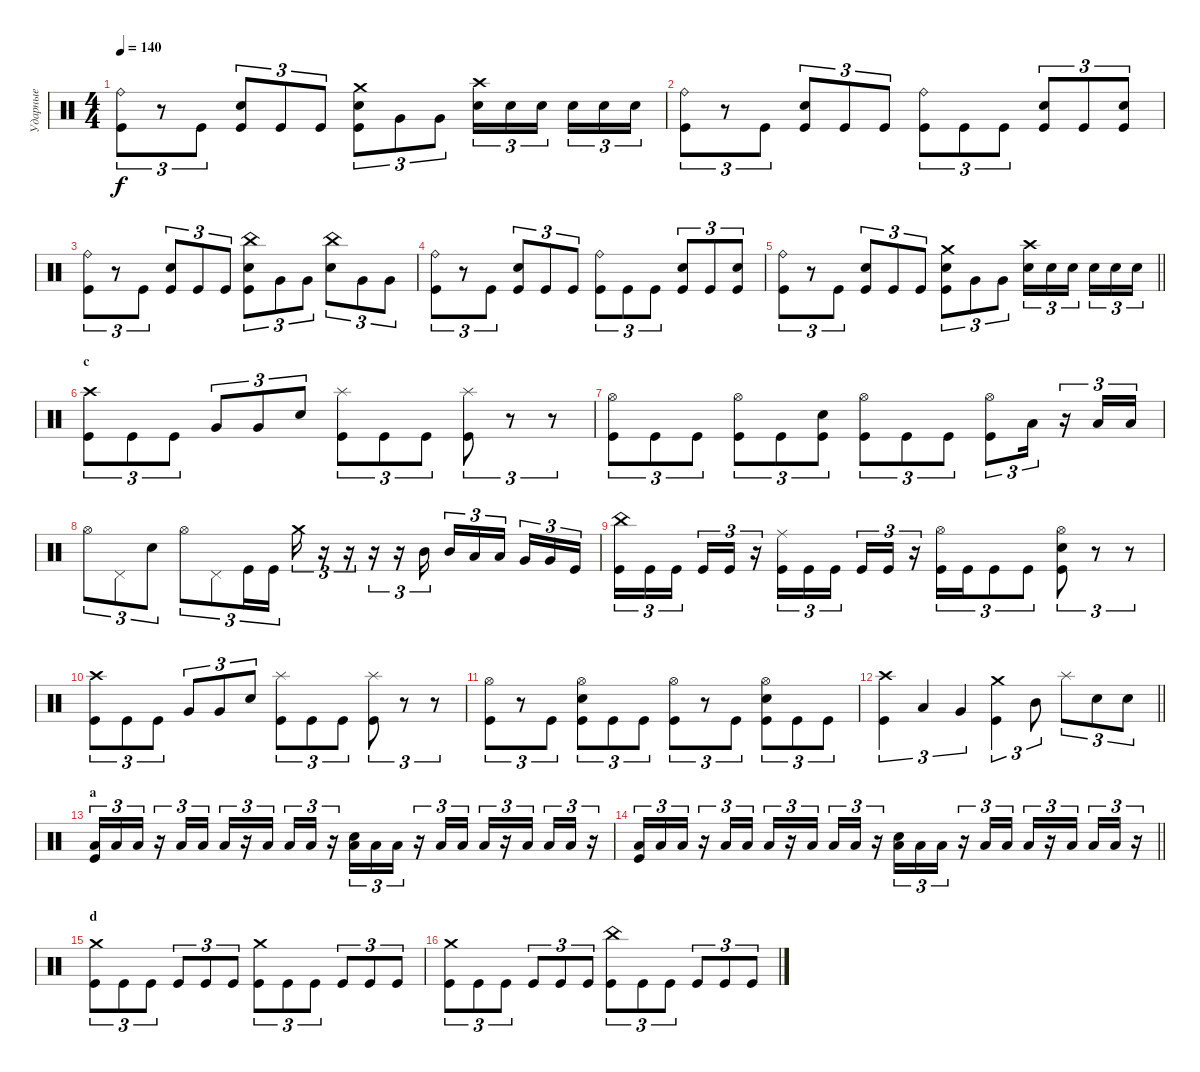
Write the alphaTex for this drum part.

\track ("Ударные" "Ударные") {instrument percussion}
\staff {score}
\articulation defaults
\ts (4 4)
\tempo 140
\clef neutral
\ks c
("Ride (bell)" "Kick (hit)").8{tu (3 2) dy f} r.8{tu (3 2)} "Kick (hit)".8{tu (3 2)} ("Electric Snare (hit)" "Kick (hit)").8{tu (3 2)} "Kick (hit)".8{tu (3 2)} "Kick (hit)".8{tu (3 2)} ("Electric Snare (hit)" "Kick (hit)" "Crash medium (hit)").8{tu (3 2)} "Very Low Tom (hit)".8{tu (3 2)} "Very Low Tom (hit)".8{tu (3 2)} ("Electric Snare (hit)" "Crash high (hit)").16{tu (3 2)} "Electric Snare (hit)".16{tu (3 2)} "Electric Snare (hit)".16{tu (3 2) beam splitsecondary} "Electric Snare (hit)".16{tu (3 2)} "Electric Snare (hit)".16{tu (3 2)} "Electric Snare (hit)".16{tu (3 2)} |
("Ride (bell)" "Kick (hit)").8{tu (3 2)} r.8{tu (3 2)} "Kick (hit)".8{tu (3 2)} ("Electric Snare (hit)" "Kick (hit)").8{tu (3 2)} "Kick (hit)".8{tu (3 2)} "Kick (hit)".8{tu (3 2)} ("Ride (bell)" "Kick (hit)").8{tu (3 2)} "Kick (hit)".8{tu (3 2)} "Kick (hit)".8{tu (3 2)} ("Electric Snare (hit)" "Kick (hit)").8{tu (3 2)} "Kick (hit)".8{tu (3 2)} ("Electric Snare (hit)" "Kick (hit)").8{tu (3 2)} |
("Ride (bell)" "Kick (hit)").8{tu (3 2)} r.8{tu (3 2)} "Kick (hit)".8{tu (3 2)} ("Electric Snare (hit)" "Kick (hit)").8{tu (3 2)} "Kick (hit)".8{tu (3 2)} "Kick (hit)".8{tu (3 2)} ("Electric Snare (hit)" "Kick (hit)" "China (hit)").8{tu (3 2)} "Very Low Tom (hit)".8{tu (3 2)} "Very Low Tom (hit)".8{tu (3 2)} ("Electric Snare (hit)" "China (hit)").8{tu (3 2)} "Very Low Tom (hit)".8{tu (3 2)} "Very Low Tom (hit)".8{tu (3 2)} |
("Ride (bell)" "Kick (hit)").8{tu (3 2)} r.8{tu (3 2)} "Kick (hit)".8{tu (3 2)} ("Electric Snare (hit)" "Kick (hit)").8{tu (3 2)} "Kick (hit)".8{tu (3 2)} "Kick (hit)".8{tu (3 2)} ("Ride (bell)" "Kick (hit)").8{tu (3 2)} "Kick (hit)".8{tu (3 2)} "Kick (hit)".8{tu (3 2)} ("Electric Snare (hit)" "Kick (hit)").8{tu (3 2)} "Kick (hit)".8{tu (3 2)} ("Electric Snare (hit)" "Kick (hit)").8{tu (3 2)} |
\barLineRight lightlight
("Ride (bell)" "Kick (hit)").8{tu (3 2)} r.8{tu (3 2)} "Kick (hit)".8{tu (3 2)} ("Electric Snare (hit)" "Kick (hit)").8{tu (3 2)} "Kick (hit)".8{tu (3 2)} "Kick (hit)".8{tu (3 2)} ("Electric Snare (hit)" "Kick (hit)" "Crash medium (hit)").8{tu (3 2)} "Very Low Tom (hit)".8{tu (3 2)} "Very Low Tom (hit)".8{tu (3 2)} ("Electric Snare (hit)" "Crash high (hit)").16{tu (3 2)} "Electric Snare (hit)".16{tu (3 2)} "Electric Snare (hit)".16{tu (3 2) beam splitsecondary} "Electric Snare (hit)".16{tu (3 2)} "Electric Snare (hit)".16{tu (3 2)} "Electric Snare (hit)".16{tu (3 2)} |
\section ("" "c")
("Crash high (hit)" "Kick (hit)").8{tu (3 2)} "Kick (hit)".8{tu (3 2)} "Kick (hit)".8{tu (3 2)} "Very Low Tom (hit)".8{tu (3 2)} "Very Low Tom (hit)".8{tu (3 2)} "Electric Snare (hit)".8{tu (3 2)} ("Splash (hit)" "Kick (hit)").8{tu (3 2)} "Kick (hit)".8{tu (3 2)} "Kick (hit)".8{tu (3 2)} ("Splash (hit)" "Kick (hit)").8{tu (3 2)} r.8{tu (3 2)} r.8{tu (3 2)} |
("Hi-Hat (open)" "Kick (hit)").8{tu (3 2)} "Kick (hit)".8{tu (3 2)} "Kick (hit)".8{tu (3 2)} ("Hi-Hat (open)" "Kick (hit)").8{tu (3 2)} "Kick (hit)".8{tu (3 2)} ("Electric Snare (hit)" "Kick (hit)").8{tu (3 2)} ("Hi-Hat (open)" "Kick (hit)").8{tu (3 2)} "Kick (hit)".8{tu (3 2)} "Kick (hit)".8{tu (3 2)} ("Hi-Hat (open)" "Kick (hit)").8{tu (3 2)} "Low Floor Tom (hit)".16{tu (3 2)} r.16{tu (3 2)} "Low Floor Tom (hit)".16{tu (3 2)} "Low Floor Tom (hit)".16{tu (3 2)} |
"Hi-Hat (open)".8{tu (3 2)} "Pedal Hi-Hat (hit)".8{tu (3 2)} "Electric Snare (hit)".8{tu (3 2)} "Hi-Hat (open)".8{tu (3 2)} "Pedal Hi-Hat (hit)".8{tu (3 2)} "Kick (hit)".16{tu (3 2)} "Kick (hit)".16{tu (3 2)} "Crash medium (hit)".16{tu (3 2)} r.16{tu (3 2)} r.16{tu (3 2)} r.16{tu (3 2)} r.16{tu (3 2)} "Mid Tom (hit)".16{tu (3 2)} "Mid Tom (hit)".16{tu (3 2)} "Low Tom (hit)".16{tu (3 2)} "Low Tom (hit)".16{tu (3 2) beam splitsecondary} "Very Low Tom (hit)".16{tu (3 2)} "Very Low Tom (hit)".16{tu (3 2)} "Kick (hit)".16{tu (3 2)} |
("China (hit)" "Kick (hit)").16{tu (3 2)} "Kick (hit)".16{tu (3 2)} "Kick (hit)".16{tu (3 2) beam splitsecondary} "Kick (hit)".16{tu (3 2)} "Kick (hit)".16{tu (3 2)} r.16{tu (3 2)} ("Ride (middle)" "Kick (hit)").16{tu (3 2)} "Kick (hit)".16{tu (3 2)} "Kick (hit)".16{tu (3 2) beam splitsecondary} "Kick (hit)".16{tu (3 2)} "Kick (hit)".16{tu (3 2)} r.16{tu (3 2)} ("Hi-Hat (open)" "Kick (hit)").16{tu (3 2)} "Kick (hit)".16{tu (3 2)} "Kick (hit)".8{tu (3 2)} "Kick (hit)".8{tu (3 2)} ("Hi-Hat (open)" "Electric Snare (hit)" "Kick (hit)").8{tu (3 2)} r.8{tu (3 2)} r.8{tu (3 2)} |
("Crash high (hit)" "Kick (hit)").8{tu (3 2)} "Kick (hit)".8{tu (3 2)} "Kick (hit)".8{tu (3 2)} "Very Low Tom (hit)".8{tu (3 2)} "Very Low Tom (hit)".8{tu (3 2)} "Electric Snare (hit)".8{tu (3 2)} ("Splash (hit)" "Kick (hit)").8{tu (3 2)} "Kick (hit)".8{tu (3 2)} "Kick (hit)".8{tu (3 2)} ("Splash (hit)" "Kick (hit)").8{tu (3 2)} r.8{tu (3 2)} r.8{tu (3 2)} |
("Hi-Hat (open)" "Kick (hit)").8{tu (3 2)} r.8{tu (3 2)} "Kick (hit)".8{tu (3 2)} ("Hi-Hat (open)" "Electric Snare (hit)" "Kick (hit)").8{tu (3 2)} "Kick (hit)".8{tu (3 2)} "Kick (hit)".8{tu (3 2)} ("Hi-Hat (open)" "Kick (hit)").8{tu (3 2)} r.8{tu (3 2)} "Kick (hit)".8{tu (3 2)} ("Hi-Hat (open)" "Electric Snare (hit)" "Kick (hit)").8{tu (3 2)} "Kick (hit)".8{tu (3 2)} "Kick (hit)".8{tu (3 2)} |
\barLineRight lightlight
("Crash high (hit)" "Kick (hit)").4{tu (3 2)} "Low Tom (hit)".4{tu (3 2)} "Very Low Tom (hit)".4{tu (3 2)} ("Crash medium (hit)" "Kick (hit)").4{tu (3 2)} "Mid Tom (hit)".8{tu (3 2)} "Splash (hit)".8{tu (3 2)} "Electric Snare (hit)".8{tu (3 2)} "Electric Snare (hit)".8{tu (3 2)} |
\section ("" "a")
("Low Floor Tom (hit)" "Kick (hit)").16{tu (3 2)} "Low Floor Tom (hit)".16{tu (3 2)} "Low Floor Tom (hit)".16{tu (3 2)} r.16{tu (3 2)} "Low Floor Tom (hit)".16{tu (3 2)} "Low Floor Tom (hit)".16{tu (3 2)} "Low Floor Tom (hit)".16{tu (3 2)} r.16{tu (3 2)} "Low Floor Tom (hit)".16{tu (3 2) beam splitsecondary} "Low Floor Tom (hit)".16{tu (3 2)} "Low Floor Tom (hit)".16{tu (3 2)} r.16{tu (3 2)} ("Low Floor Tom (hit)" "Electric Snare (hit)").16{tu (3 2)} "Low Floor Tom (hit)".16{tu (3 2)} "Low Floor Tom (hit)".16{tu (3 2)} r.16{tu (3 2)} "Low Floor Tom (hit)".16{tu (3 2)} "Low Floor Tom (hit)".16{tu (3 2)} "Low Floor Tom (hit)".16{tu (3 2)} r.16{tu (3 2)} "Low Floor Tom (hit)".16{tu (3 2) beam splitsecondary} "Low Floor Tom (hit)".16{tu (3 2)} "Low Floor Tom (hit)".16{tu (3 2)} r.16{tu (3 2)} |
\barLineRight lightlight
("Low Floor Tom (hit)" "Kick (hit)").16{tu (3 2)} "Low Floor Tom (hit)".16{tu (3 2)} "Low Floor Tom (hit)".16{tu (3 2)} r.16{tu (3 2)} "Low Floor Tom (hit)".16{tu (3 2)} "Low Floor Tom (hit)".16{tu (3 2)} "Low Floor Tom (hit)".16{tu (3 2)} r.16{tu (3 2)} "Low Floor Tom (hit)".16{tu (3 2) beam splitsecondary} "Low Floor Tom (hit)".16{tu (3 2)} "Low Floor Tom (hit)".16{tu (3 2)} r.16{tu (3 2)} ("Low Floor Tom (hit)" "Electric Snare (hit)").16{tu (3 2)} "Low Floor Tom (hit)".16{tu (3 2)} "Low Floor Tom (hit)".16{tu (3 2)} r.16{tu (3 2)} "Low Floor Tom (hit)".16{tu (3 2)} "Low Floor Tom (hit)".16{tu (3 2)} "Low Floor Tom (hit)".16{tu (3 2)} r.16{tu (3 2)} "Low Floor Tom (hit)".16{tu (3 2) beam splitsecondary} "Low Floor Tom (hit)".16{tu (3 2)} "Low Floor Tom (hit)".16{tu (3 2)} r.16{tu (3 2)} |
\section ("" "d")
("Crash medium (hit)" "Kick (hit)").8{tu (3 2)} "Kick (hit)".8{tu (3 2)} "Kick (hit)".8{tu (3 2)} "Kick (hit)".8{tu (3 2)} "Kick (hit)".8{tu (3 2)} "Kick (hit)".8{tu (3 2)} ("Crash medium (hit)" "Kick (hit)").8{tu (3 2)} "Kick (hit)".8{tu (3 2)} "Kick (hit)".8{tu (3 2)} "Kick (hit)".8{tu (3 2)} "Kick (hit)".8{tu (3 2)} "Kick (hit)".8{tu (3 2)} |
("Crash medium (hit)" "Kick (hit)").8{tu (3 2)} "Kick (hit)".8{tu (3 2)} "Kick (hit)".8{tu (3 2)} "Kick (hit)".8{tu (3 2)} "Kick (hit)".8{tu (3 2)} "Kick (hit)".8{tu (3 2)} ("China (hit)" "Kick (hit)").8{tu (3 2)} "Kick (hit)".8{tu (3 2)} "Kick (hit)".8{tu (3 2)} "Kick (hit)".8{tu (3 2)} "Kick (hit)".8{tu (3 2)} "Kick (hit)".8{tu (3 2)}
